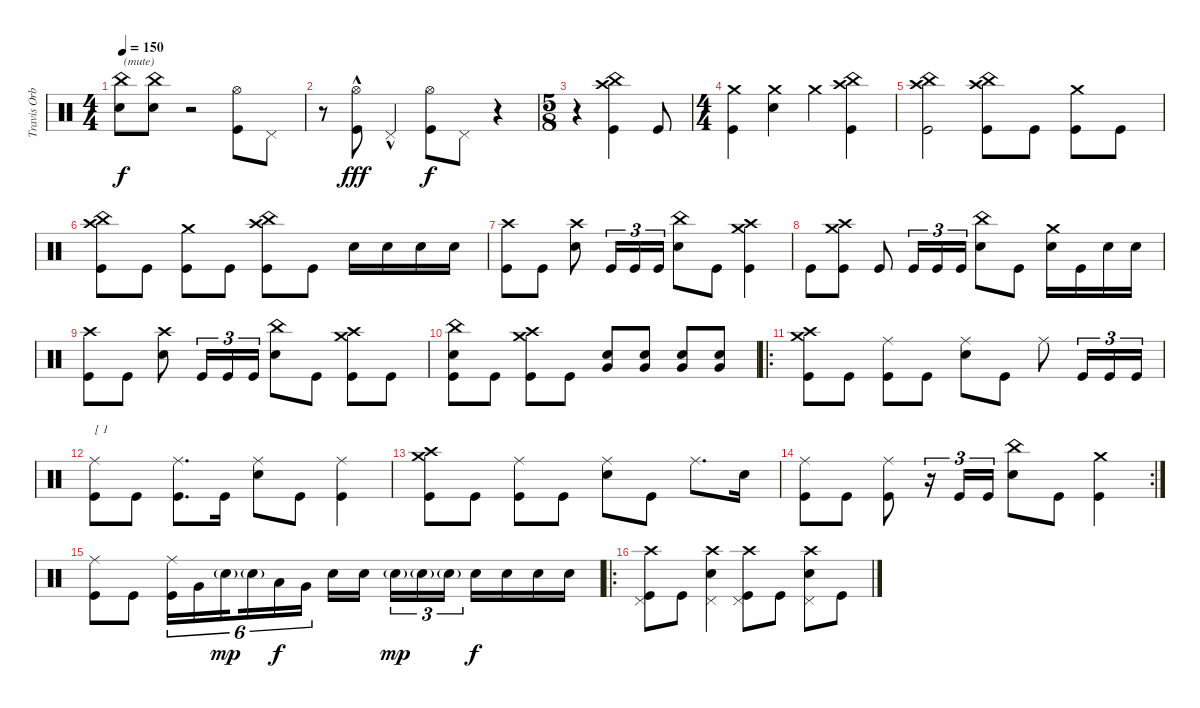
\track ("Travis Orbin" "Travis Orb") {instrument percussion}
\staff {score}
\articulation defaults
\ts (4 4)
\tempo 150
\clef neutral
\ks c
("China (hit)" "Electric Snare (hit)").8{txt "(mute)" dy f} ("China (hit)" "Electric Snare (hit)").8 r.2 ("Hi-Hat (open)" "Kick (hit)").8 "Pedal Hi-Hat (hit)".8 |
r.8 ("Hi-Hat (open)"{hac} "Kick (hit)").8{dy fff} "Pedal Hi-Hat (hit)"{hac}.4 ("Hi-Hat (open)" "Kick (hit)").8{dy f} "Pedal Hi-Hat (hit)".8 r.4 |
\ts (5 8)
r.4 ("Crash high (hit)" "China (hit)" "Kick (hit)").4 "Kick (hit)".8 |
\ts (4 4)
("Crash medium (hit)" "Kick (hit)").4 ("Crash medium (hit)" "Electric Snare (hit)").4 "Crash medium (hit)".4 ("Crash high (hit)" "China (hit)" "Kick (hit)").4 |
("Crash high (hit)" "China (hit)" "Kick (hit)").2 ("Crash high (hit)" "China (hit)" "Kick (hit)").8 "Kick (hit)".8 ("Crash medium (hit)" "Kick (hit)").8 "Kick (hit)".8 |
("Crash high (hit)" "China (hit)" "Kick (hit)").8 "Kick (hit)".8 ("Crash medium (hit)" "Kick (hit)").8 "Kick (hit)".8 ("Crash high (hit)" "China (hit)" "Kick (hit)").8 "Kick (hit)".8 "Electric Snare (hit)".16 "Electric Snare (hit)".16 "Electric Snare (hit)".16 "Electric Snare (hit)".16 |
("Crash high (hit)" "Kick (hit)").8 "Kick (hit)".8 ("Crash high (hit)" "Electric Snare (hit)").8 "Kick (hit)".16{tu (3 2)} "Kick (hit)".16{tu (3 2)} "Kick (hit)".16{tu (3 2)} ("China (hit)" "Electric Snare (hit)").8 "Kick (hit)".8 ("Crash high (hit)" "Crash medium (hit)" "Kick (hit)").4 |
"Kick (hit)".8 ("Crash high (hit)" "Crash medium (hit)" "Kick (hit)").8 "Kick (hit)".8 "Kick (hit)".16{tu (3 2)} "Kick (hit)".16{tu (3 2)} "Kick (hit)".16{tu (3 2)} ("China (hit)" "Electric Snare (hit)").8 "Kick (hit)".8 ("Crash medium (hit)" "Electric Snare (hit)").16 "Kick (hit)".16 "Electric Snare (hit)".16 "Electric Snare (hit)".16 |
("Crash high (hit)" "Kick (hit)").8 "Kick (hit)".8 ("Crash high (hit)" "Electric Snare (hit)").8 "Kick (hit)".16{tu (3 2)} "Kick (hit)".16{tu (3 2)} "Kick (hit)".16{tu (3 2)} ("China (hit)" "Electric Snare (hit)").8 "Kick (hit)".8 ("Crash high (hit)" "Crash medium (hit)" "Kick (hit)").8 "Kick (hit)".8 |
("China (hit)" "Electric Snare (hit)" "Kick (hit)").8 "Kick (hit)".8 ("Crash high (hit)" "Crash medium (hit)" "Kick (hit)").8 "Kick (hit)".8 ("Electric Snare (hit)" "Very Low Tom (hit)").8 ("Electric Snare (hit)" "Very Low Tom (hit)").8 ("Electric Snare (hit)" "Very Low Tom (hit)").8 ("Electric Snare (hit)" "Very Low Tom (hit)").8 |
\ro
("Crash high (hit)" "Crash medium (hit)" "Kick (hit)").8 "Kick (hit)".8 ("Ride (middle)" "Kick (hit)").8 "Kick (hit)".8 ("Ride (middle)" "Electric Snare (hit)").8 "Kick (hit)".8 "Ride (middle)".8 "Kick (hit)".16{tu (3 2)} "Kick (hit)".16{tu (3 2)} "Kick (hit)".16{tu (3 2)} |
("Ride (middle)" "Kick (hit)").8{txt "[ 1"} "Kick (hit)".8 ("Ride (middle)" "Kick (hit)").8{d} "Kick (hit)".16 ("Ride (middle)" "Electric Snare (hit)").8 "Kick (hit)".8 ("Ride (middle)" "Kick (hit)").4 |
("Crash high (hit)" "Crash medium (hit)" "Kick (hit)").8 "Kick (hit)".8 ("Ride (middle)" "Kick (hit)").8 "Kick (hit)".8 ("Ride (middle)" "Electric Snare (hit)").8 "Kick (hit)".8 "Ride (middle)".8{d} "Electric Snare (hit)".16 |
\rc 2
("Ride (middle)" "Kick (hit)").8 "Kick (hit)".8 ("Ride (middle)" "Kick (hit)").8 r.16{tu (3 2)} "Kick (hit)".16{tu (3 2)} "Kick (hit)".16{tu (3 2)} ("China (hit)" "Electric Snare (hit)").8 "Kick (hit)".8 ("Crash medium (hit)" "Kick (hit)").4 |
("Ride (middle)" "Kick (hit)").8 "Kick (hit)".8 ("Ride (middle)" "Kick (hit)").16{tu (6 4)} "Very Low Tom (hit)".16{tu (6 4)} "Electric Snare (hit)"{g}.16{tu (6 4) dy mp beam splitsecondary} "Electric Snare (hit)"{g}.16{tu (6 4)} "Low Tom (hit)".16{tu (6 4) dy f} "Very Low Tom (hit)".16{tu (6 4)} "Electric Snare (hit)".16 "Electric Snare (hit)".16{beam splitsecondary} "Electric Snare (hit)"{g}.16{tu (3 2) dy mp} "Electric Snare (hit)"{g}.16{tu (3 2)} "Electric Snare (hit)"{g}.16{tu (3 2)} "Electric Snare (hit)".16{dy f} "Electric Snare (hit)".16 "Electric Snare (hit)".16 "Electric Snare (hit)".16 |
\ro
("Crash high (hit)" "Kick (hit)" "Pedal Hi-Hat (hit)").8 "Kick (hit)".8 ("Crash high (hit)" "Electric Snare (hit)" "Pedal Hi-Hat (hit)").4 ("Crash high (hit)" "Kick (hit)" "Pedal Hi-Hat (hit)").8 "Kick (hit)".8 ("Crash high (hit)" "Electric Snare (hit)" "Pedal Hi-Hat (hit)").8 "Kick (hit)".8
